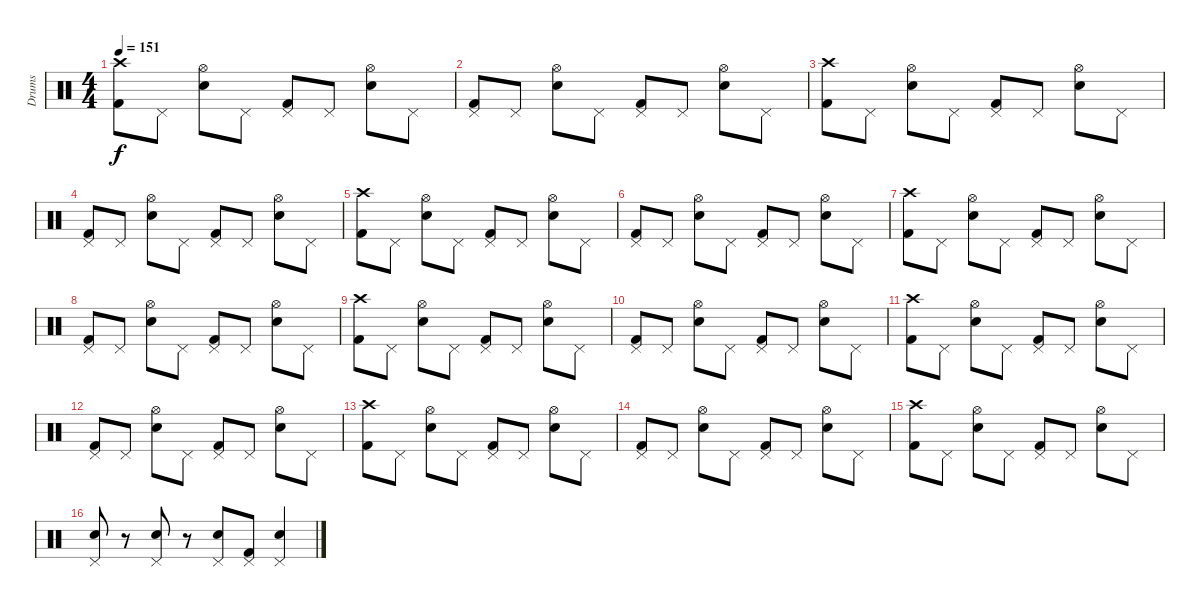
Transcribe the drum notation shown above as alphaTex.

\track ("Drums" "Drums") {instrument percussion}
\staff {score}
\articulation defaults
\ts (4 4)
\tempo 151
\clef neutral
\ks c
("Crash high (hit)" "Kick (hit) 2").8{dy f} "Pedal Hi-Hat (hit)".8 ("Hi-Hat (open)" "Electric Snare (hit)").8 "Pedal Hi-Hat (hit)".8 ("Pedal Hi-Hat (hit)" "Kick (hit) 2").8 "Pedal Hi-Hat (hit)".8 ("Hi-Hat (open)" "Electric Snare (hit)").8 "Pedal Hi-Hat (hit)".8 |
("Pedal Hi-Hat (hit)" "Kick (hit) 2").8 "Pedal Hi-Hat (hit)".8 ("Hi-Hat (open)" "Electric Snare (hit)").8 "Pedal Hi-Hat (hit)".8 ("Pedal Hi-Hat (hit)" "Kick (hit) 2").8 "Pedal Hi-Hat (hit)".8 ("Hi-Hat (open)" "Electric Snare (hit)").8 "Pedal Hi-Hat (hit)".8 |
("Crash high (hit)" "Kick (hit) 2").8 "Pedal Hi-Hat (hit)".8 ("Hi-Hat (open)" "Electric Snare (hit)").8 "Pedal Hi-Hat (hit)".8 ("Pedal Hi-Hat (hit)" "Kick (hit) 2").8 "Pedal Hi-Hat (hit)".8 ("Hi-Hat (open)" "Electric Snare (hit)").8 "Pedal Hi-Hat (hit)".8 |
("Pedal Hi-Hat (hit)" "Kick (hit) 2").8 "Pedal Hi-Hat (hit)".8 ("Hi-Hat (open)" "Electric Snare (hit)").8 "Pedal Hi-Hat (hit)".8 ("Pedal Hi-Hat (hit)" "Kick (hit) 2").8 "Pedal Hi-Hat (hit)".8 ("Hi-Hat (open)" "Electric Snare (hit)").8 "Pedal Hi-Hat (hit)".8 |
("Crash high (hit)" "Kick (hit) 2").8 "Pedal Hi-Hat (hit)".8 ("Hi-Hat (open)" "Electric Snare (hit)").8 "Pedal Hi-Hat (hit)".8 ("Pedal Hi-Hat (hit)" "Kick (hit) 2").8 "Pedal Hi-Hat (hit)".8 ("Hi-Hat (open)" "Electric Snare (hit)").8 "Pedal Hi-Hat (hit)".8 |
("Pedal Hi-Hat (hit)" "Kick (hit) 2").8 "Pedal Hi-Hat (hit)".8 ("Hi-Hat (open)" "Electric Snare (hit)").8 "Pedal Hi-Hat (hit)".8 ("Pedal Hi-Hat (hit)" "Kick (hit) 2").8 "Pedal Hi-Hat (hit)".8 ("Hi-Hat (open)" "Electric Snare (hit)").8 "Pedal Hi-Hat (hit)".8 |
("Crash high (hit)" "Kick (hit) 2").8 "Pedal Hi-Hat (hit)".8 ("Hi-Hat (open)" "Electric Snare (hit)").8 "Pedal Hi-Hat (hit)".8 ("Pedal Hi-Hat (hit)" "Kick (hit) 2").8 "Pedal Hi-Hat (hit)".8 ("Hi-Hat (open)" "Electric Snare (hit)").8 "Pedal Hi-Hat (hit)".8 |
("Pedal Hi-Hat (hit)" "Kick (hit) 2").8 "Pedal Hi-Hat (hit)".8 ("Hi-Hat (open)" "Electric Snare (hit)").8 "Pedal Hi-Hat (hit)".8 ("Pedal Hi-Hat (hit)" "Kick (hit) 2").8 "Pedal Hi-Hat (hit)".8 ("Hi-Hat (open)" "Electric Snare (hit)").8 "Pedal Hi-Hat (hit)".8 |
("Crash high (hit)" "Kick (hit) 2").8 "Pedal Hi-Hat (hit)".8 ("Hi-Hat (open)" "Electric Snare (hit)").8 "Pedal Hi-Hat (hit)".8 ("Pedal Hi-Hat (hit)" "Kick (hit) 2").8 "Pedal Hi-Hat (hit)".8 ("Hi-Hat (open)" "Electric Snare (hit)").8 "Pedal Hi-Hat (hit)".8 |
("Pedal Hi-Hat (hit)" "Kick (hit) 2").8 "Pedal Hi-Hat (hit)".8 ("Hi-Hat (open)" "Electric Snare (hit)").8 "Pedal Hi-Hat (hit)".8 ("Pedal Hi-Hat (hit)" "Kick (hit) 2").8 "Pedal Hi-Hat (hit)".8 ("Hi-Hat (open)" "Electric Snare (hit)").8 "Pedal Hi-Hat (hit)".8 |
("Crash high (hit)" "Kick (hit) 2").8 "Pedal Hi-Hat (hit)".8 ("Hi-Hat (open)" "Electric Snare (hit)").8 "Pedal Hi-Hat (hit)".8 ("Pedal Hi-Hat (hit)" "Kick (hit) 2").8 "Pedal Hi-Hat (hit)".8 ("Hi-Hat (open)" "Electric Snare (hit)").8 "Pedal Hi-Hat (hit)".8 |
("Pedal Hi-Hat (hit)" "Kick (hit) 2").8 "Pedal Hi-Hat (hit)".8 ("Hi-Hat (open)" "Electric Snare (hit)").8 "Pedal Hi-Hat (hit)".8 ("Pedal Hi-Hat (hit)" "Kick (hit) 2").8 "Pedal Hi-Hat (hit)".8 ("Hi-Hat (open)" "Electric Snare (hit)").8 "Pedal Hi-Hat (hit)".8 |
("Crash high (hit)" "Kick (hit) 2").8 "Pedal Hi-Hat (hit)".8 ("Hi-Hat (open)" "Electric Snare (hit)").8 "Pedal Hi-Hat (hit)".8 ("Pedal Hi-Hat (hit)" "Kick (hit) 2").8 "Pedal Hi-Hat (hit)".8 ("Hi-Hat (open)" "Electric Snare (hit)").8 "Pedal Hi-Hat (hit)".8 |
("Pedal Hi-Hat (hit)" "Kick (hit) 2").8 "Pedal Hi-Hat (hit)".8 ("Hi-Hat (open)" "Electric Snare (hit)").8 "Pedal Hi-Hat (hit)".8 ("Pedal Hi-Hat (hit)" "Kick (hit) 2").8 "Pedal Hi-Hat (hit)".8 ("Hi-Hat (open)" "Electric Snare (hit)").8 "Pedal Hi-Hat (hit)".8 |
("Crash high (hit)" "Kick (hit) 2").8 "Pedal Hi-Hat (hit)".8 ("Hi-Hat (open)" "Electric Snare (hit)").8 "Pedal Hi-Hat (hit)".8 ("Pedal Hi-Hat (hit)" "Kick (hit) 2").8 "Pedal Hi-Hat (hit)".8 ("Hi-Hat (open)" "Electric Snare (hit)").8 "Pedal Hi-Hat (hit)".8 |
("Pedal Hi-Hat (hit)" "Electric Snare (hit)").8 r.8 ("Pedal Hi-Hat (hit)" "Electric Snare (hit)").8 r.8 ("Pedal Hi-Hat (hit)" "Electric Snare (hit)").8 ("Pedal Hi-Hat (hit)" "Kick (hit) 2").8 ("Pedal Hi-Hat (hit)" "Electric Snare (hit)").4
